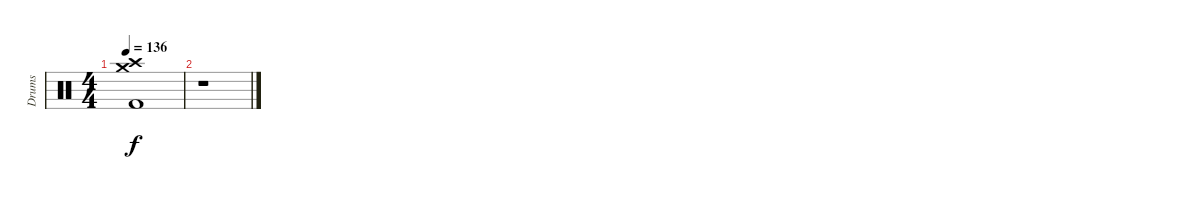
\track ("Drums" "Drums") {instrument percussion}
\staff {score}
\articulation defaults
\ts (4 4)
\tempo 136
\clef neutral
\ks c
("Crash medium (hit)" "Crash high (hit)" "Kick (hit) 2").1{dy f} |
r.1
